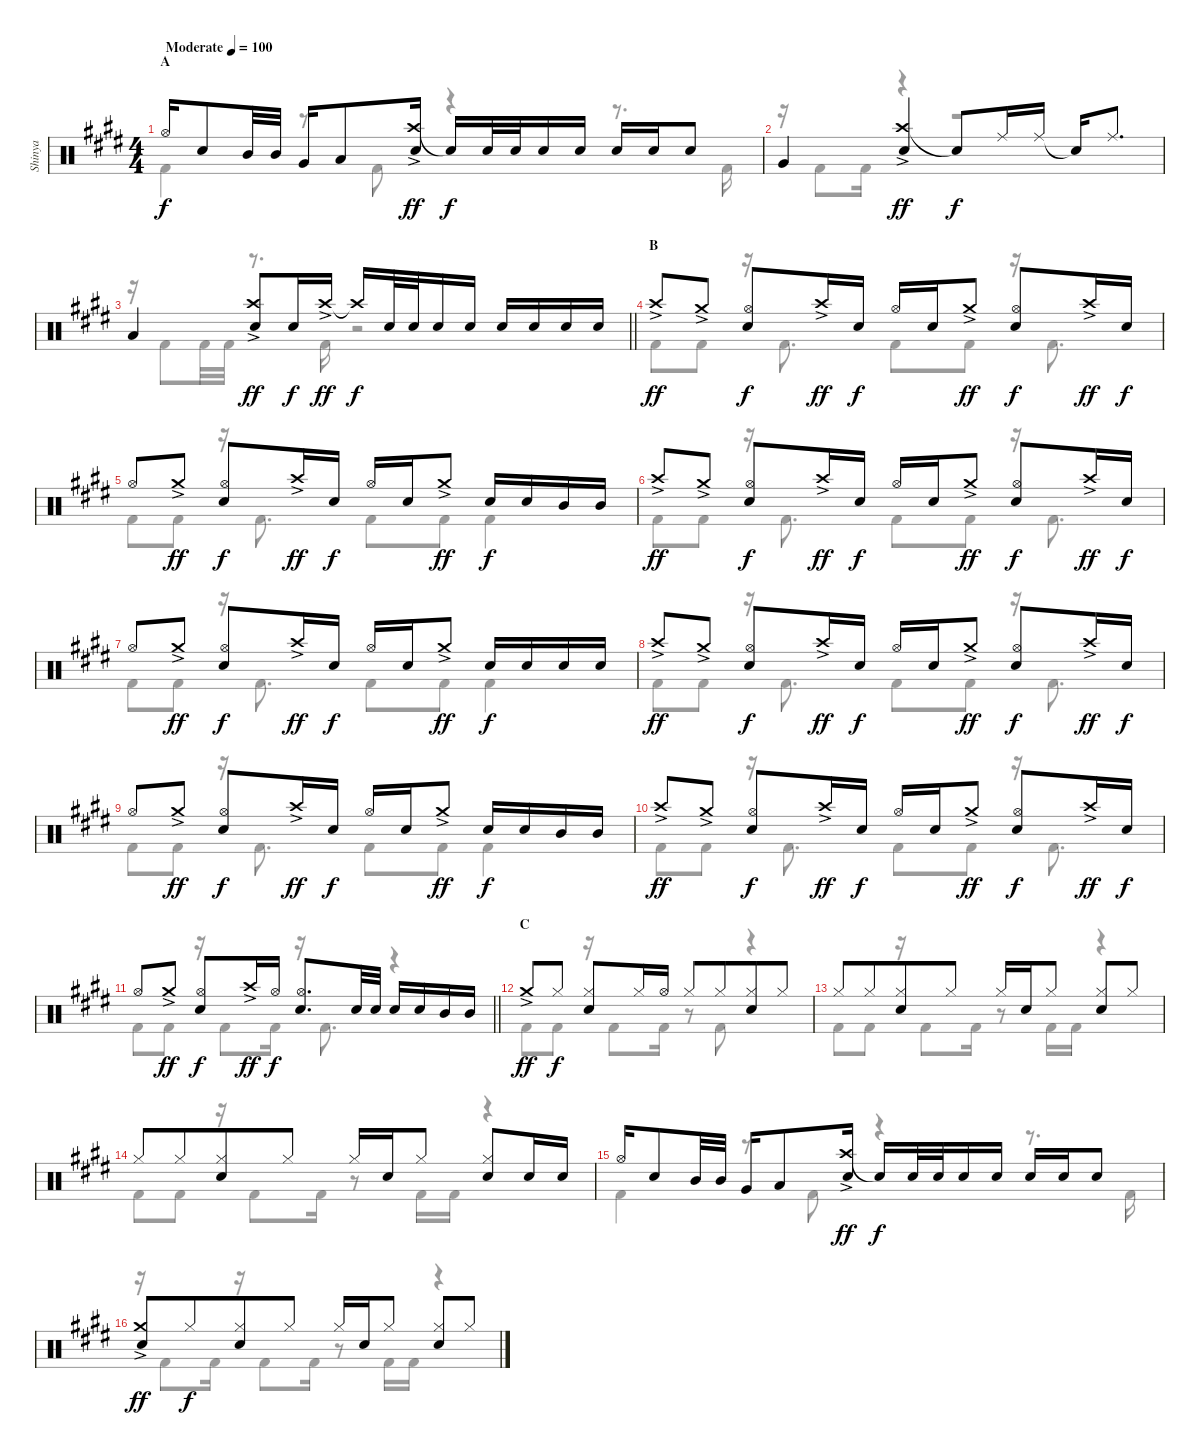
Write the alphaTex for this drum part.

\track ("Shinya" "Shinya") {instrument percussion}
\staff {score}
\articulation defaults
\voice
\ts (4 4)
\section ("" "A")
\tempo (100 "Moderate")
\clef neutral
\ks c#minor "Hi-Hat (open)".16{dy f} "Snare (hit) 2".8 "Mid Tom (hit)".32 "Mid Tom (hit)".32 "Very Low Tom (hit)".16 "Low Tom (hit)".8
("Crash high (hit)"{ac} "Snare (hit) 2").16{dy ff} "Snare (hit)"{t}.16{dy f} "Snare (hit) 2".32 "Snare (hit) 2".32 "Snare (hit) 2".16 "Snare (hit) 2".16 "Snare (hit) 2".16 "Snare (hit) 2".16 "Snare (hit) 2".8 |
"Very Low Tom (hit)".4 ("Crash high (hit)"{ac} "Snare (hit) 2").4{dy ff} "Snare (hit)"{t}.8{dy f} "Ride (middle)".16 "Ride (middle)".16 "Snare (hit)"{t}.16 "Ride (middle)".8{d} |
\barLineRight lightlight "Low Tom (hit)".4
("Crash high (hit)"{ac} "Snare (hit) 2").8{dy ff} "Snare (hit) 2".16{dy f} "Crash high (hit)"{ac}.16{dy ff} "Crash high (hit)"{t}.16{dy f} "Snare (hit) 2".32 "Snare (hit) 2".32{beam splitsecondary} "Snare (hit) 2".16 "Snare (hit) 2".16 "Snare (hit) 2".16 "Snare (hit) 2".16 "Snare (hit) 2".16 "Snare (hit) 2".16 |
\section ("" "B")
"Crash high (hit)"{ac}.8{dy ff} "Crash medium (hit)"{ac}.8 ("Hi-Hat (open)" "Snare (hit) 2").8{dy f} "Crash high (hit)"{ac}.16{dy ff} "Snare (hit) 2".16{dy f} "Hi-Hat (open)".16 "Snare (hit) 2".16 "Crash medium (hit)"{ac}.8{dy ff} ("Hi-Hat (open)" "Snare (hit) 2").8{dy f} "Crash high (hit)"{ac}.16{dy ff} "Snare (hit) 2".16{dy f} |
"Hi-Hat (open)".8 "Crash medium (hit)"{ac}.8{dy ff} ("Hi-Hat (open)" "Snare (hit) 2").8{dy f} "Crash high (hit)"{ac}.16{dy ff} "Snare (hit) 2".16{dy f} "Hi-Hat (open)".16 "Snare (hit) 2".16 "Crash medium (hit)"{ac}.8{dy ff} "Snare (hit) 2".16{dy f} "Snare (hit) 2".16 "Mid Tom (hit)".16 "Mid Tom (hit)".16 |
"Crash high (hit)"{ac}.8{dy ff} "Crash medium (hit)"{ac}.8 ("Hi-Hat (open)" "Snare (hit) 2").8{dy f} "Crash high (hit)"{ac}.16{dy ff} "Snare (hit) 2".16{dy f} "Hi-Hat (open)".16 "Snare (hit) 2".16 "Crash medium (hit)"{ac}.8{dy ff} ("Hi-Hat (open)" "Snare (hit) 2").8{dy f} "Crash high (hit)"{ac}.16{dy ff} "Snare (hit) 2".16{dy f} |
"Hi-Hat (open)".8 "Crash medium (hit)"{ac}.8{dy ff} ("Hi-Hat (open)" "Snare (hit) 2").8{dy f} "Crash high (hit)"{ac}.16{dy ff} "Snare (hit) 2".16{dy f} "Hi-Hat (open)".16 "Snare (hit) 2".16 "Crash medium (hit)"{ac}.8{dy ff} "Snare (hit) 2".16{dy f} "Snare (hit) 2".16 "Snare (hit) 2".16 "Snare (hit) 2".16 |
"Crash high (hit)"{ac}.8{dy ff} "Crash medium (hit)"{ac}.8 ("Hi-Hat (open)" "Snare (hit) 2").8{dy f} "Crash high (hit)"{ac}.16{dy ff} "Snare (hit) 2".16{dy f} "Hi-Hat (open)".16 "Snare (hit) 2".16 "Crash medium (hit)"{ac}.8{dy ff} ("Hi-Hat (open)" "Snare (hit) 2").8{dy f} "Crash high (hit)"{ac}.16{dy ff} "Snare (hit) 2".16{dy f} |
"Hi-Hat (open)".8 "Crash medium (hit)"{ac}.8{dy ff} ("Hi-Hat (open)" "Snare (hit) 2").8{dy f} "Crash high (hit)"{ac}.16{dy ff} "Snare (hit) 2".16{dy f} "Hi-Hat (open)".16 "Snare (hit) 2".16 "Crash medium (hit)"{ac}.8{dy ff} "Snare (hit) 2".16{dy f} "Snare (hit) 2".16 "Mid Tom (hit)".16 "Mid Tom (hit)".16 |
"Crash high (hit)"{ac}.8{dy ff} "Crash medium (hit)"{ac}.8 ("Hi-Hat (open)" "Snare (hit) 2").8{dy f} "Crash high (hit)"{ac}.16{dy ff} "Snare (hit) 2".16{dy f} "Hi-Hat (open)".16 "Snare (hit) 2".16 "Crash medium (hit)"{ac}.8{dy ff} ("Hi-Hat (open)" "Snare (hit) 2").8{dy f} "Crash high (hit)"{ac}.16{dy ff} "Snare (hit) 2".16{dy f} |
\barLineRight lightlight "Hi-Hat (open)".8 "Crash medium (hit)"{ac}.8{dy ff}
("Hi-Hat (open)" "Snare (hit) 2").8{dy f} "Crash high (hit)"{ac}.16{dy ff} "Hi-Hat (open)".16{dy f} ("Hi-Hat (open)" "Snare (hit) 2").8{d} "Snare (hit) 2".32 "Snare (hit) 2".32 "Snare (hit) 2".16 "Snare (hit) 2".16 "Mid Tom (hit)".16 "Mid Tom (hit)".16 |
\section ("" "C")
"Crash medium (hit)"{ac}.8{dy ff} "Hi-Hat (closed)".8{dy f} ("Hi-Hat (closed)" "Snare (hit) 2").8 "Hi-Hat (closed)".16 "Hi-Hat (open)".16 "Hi-Hat (closed)".8 "Hi-Hat (closed)".8{beam merge} ("Hi-Hat (closed)" "Snare (hit) 2").8 "Hi-Hat (closed)".8 |
"Hi-Hat (closed)".8 "Hi-Hat (closed)".8{beam merge} ("Hi-Hat (closed)" "Snare (hit) 2").8 "Hi-Hat (closed)".8 "Hi-Hat (closed)".16 "Snare (hit) 2".16 "Hi-Hat (closed)".8 ("Hi-Hat (closed)" "Snare (hit) 2").8 "Hi-Hat (closed)".8 |
"Hi-Hat (closed)".8 "Hi-Hat (closed)".8{beam merge} ("Hi-Hat (closed)" "Snare (hit) 2").8 "Hi-Hat (closed)".8 "Hi-Hat (closed)".16 "Snare (hit) 2".16 "Hi-Hat (closed)".8 ("Hi-Hat (closed)" "Snare (hit) 2").8 "Snare (hit) 2".16 "Snare (hit) 2".16 |
"Hi-Hat (open)".16 "Snare (hit) 2".8 "Mid Tom (hit)".32 "Mid Tom (hit)".32 "Very Low Tom (hit)".16 "Low Tom (hit)".8 ("Crash high (hit)"{ac} "Snare (hit) 2").16{dy ff} "Snare (hit)"{t}.16{dy f} "Snare (hit) 2".32 "Snare (hit) 2".32{beam splitsecondary} "Snare (hit) 2".16 "Snare (hit) 2".16 "Snare (hit) 2".16 "Snare (hit) 2".16 "Snare (hit) 2".8 |
("Crash medium (hit)"{ac} "Snare (hit) 2").8{dy ff} "Hi-Hat (closed)".8{dy f beam merge} ("Hi-Hat (closed)" "Snare (hit) 2").8 "Hi-Hat (closed)".8 "Hi-Hat (closed)".16 "Snare (hit) 2".16 "Hi-Hat (closed)".8 ("Hi-Hat (closed)" "Snare (hit) 2").8 "Hi-Hat (closed)".8
\voice
\clef neutral
\ottava regular
\simile none
\ks c#minor "Kick (hit) 2".4{dy f}
r.8 "Kick (hit) 2".8 r.4 r.8{d} "Kick (hit) 2".16 |
r.16 "Kick (hit) 2".8 "Kick (hit) 2".16 r.4 r.2 |
\barLineRight lightlight
r.16 "Kick (hit) 2".8 "Kick (hit) 2".32 "Kick (hit) 2".32 r.8{d} "Kick (hit) 2".16 r.2 |
"Kick (hit) 2".8 "Kick (hit) 2".8 r.16 "Kick (hit) 2".8{d} "Kick (hit) 2".8 "Kick (hit) 2".8 r.16 "Kick (hit) 2".8{d} |
"Kick (hit) 2".8 "Kick (hit) 2".8 r.16 "Kick (hit) 2".8{d} "Kick (hit) 2".8 "Kick (hit) 2".8 "Kick (hit) 2".4 |
"Kick (hit) 2".8 "Kick (hit) 2".8 r.16 "Kick (hit) 2".8{d} "Kick (hit) 2".8 "Kick (hit) 2".8 r.16 "Kick (hit) 2".8{d} |
"Kick (hit) 2".8 "Kick (hit) 2".8 r.16 "Kick (hit) 2".8{d} "Kick (hit) 2".8 "Kick (hit) 2".8 "Kick (hit) 2".4 |
"Kick (hit) 2".8 "Kick (hit) 2".8 r.16 "Kick (hit) 2".8{d} "Kick (hit) 2".8 "Kick (hit) 2".8 r.16 "Kick (hit) 2".8{d} |
"Kick (hit) 2".8 "Kick (hit) 2".8 r.16 "Kick (hit) 2".8{d} "Kick (hit) 2".8 "Kick (hit) 2".8 "Kick (hit) 2".4 |
"Kick (hit) 2".8 "Kick (hit) 2".8 r.16 "Kick (hit) 2".8{d} "Kick (hit) 2".8 "Kick (hit) 2".8 r.16 "Kick (hit) 2".8{d} |
\barLineRight lightlight "Kick (hit) 2".8 "Kick (hit) 2".8
r.16 "Kick (hit) 2".8 "Kick (hit) 2".16 r.16 "Kick (hit) 2".8{d} r.4 |
"Kick (hit) 2".8 "Kick (hit) 2".8 r.16 "Kick (hit) 2".8 "Kick (hit) 2".16 r.8 "Kick (hit) 2".8 r.4 |
"Kick (hit) 2".8 "Kick (hit) 2".8 r.16 "Kick (hit) 2".8 "Kick (hit) 2".16 r.8 "Kick (hit) 2".16 "Kick (hit) 2".16 r.4 |
"Kick (hit) 2".8 "Kick (hit) 2".8 r.16 "Kick (hit) 2".8 "Kick (hit) 2".16 r.8 "Kick (hit) 2".16 "Kick (hit) 2".16 r.4 |
"Kick (hit) 2".4 r.8 "Kick (hit) 2".8 r.4 r.8{d} "Kick (hit) 2".16 |
r.16 "Kick (hit) 2".8 "Kick (hit) 2".16 r.16 "Kick (hit) 2".8 "Kick (hit) 2".16 r.8 "Kick (hit) 2".16 "Kick (hit) 2".16 r.4
